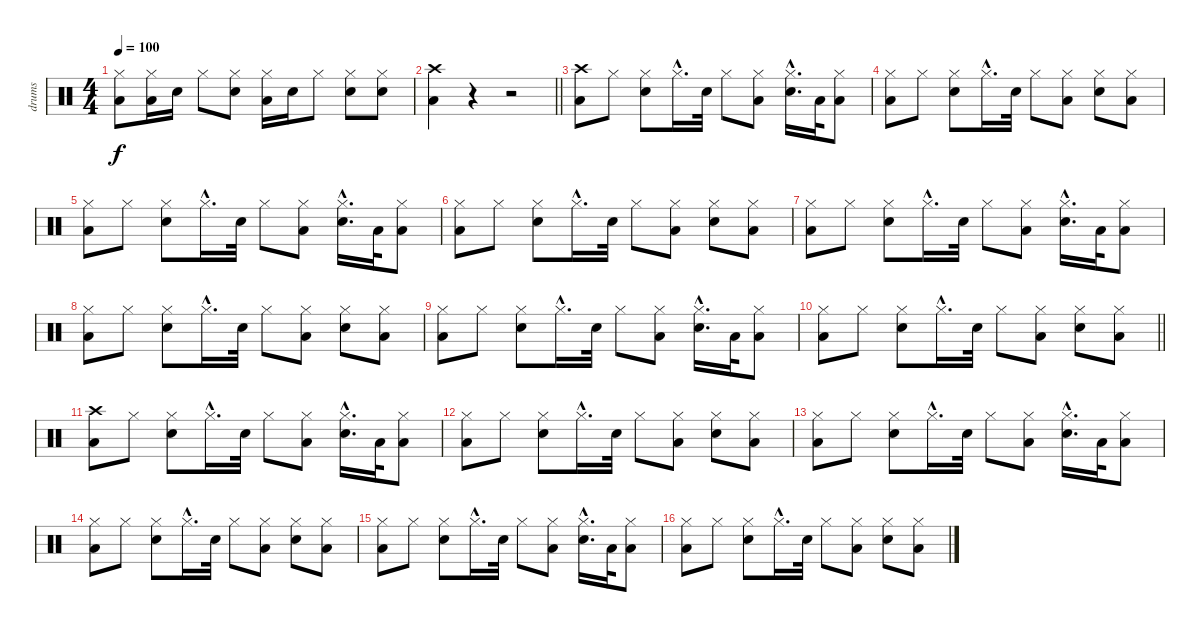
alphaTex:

\track ("drums" "drums") {instrument percussion}
\staff {score}
\articulation defaults
\ts (4 4)
\tempo 100
\clef neutral
\ks c
("Hi-Hat (closed)" "Low Floor Tom (hit)").8{dy f} ("Hi-Hat (closed)" "Low Floor Tom (hit)").16 "Electric Snare (hit)".16 "Hi-Hat (closed)".8 ("Hi-Hat (closed)" "Electric Snare (hit)").8 ("Hi-Hat (closed)" "Low Floor Tom (hit)").16 "Electric Snare (hit)".16 "Hi-Hat (closed)".8 ("Hi-Hat (closed)" "Electric Snare (hit)").8 ("Hi-Hat (closed)" "Electric Snare (hit)").8 |
\barLineRight lightlight
("Crash high (hit)" "Low Floor Tom (hit)").4 r.4 r.2 |
("Crash high (hit)" "Low Floor Tom (hit)").8 "Hi-Hat (closed)".8 ("Hi-Hat (closed)" "Electric Snare (hit)").8 "Hi-Hat (closed)"{hac}.16{d} "Electric Snare (hit)".32 "Hi-Hat (closed)".8 ("Hi-Hat (closed)" "Low Floor Tom (hit)").8 ("Hi-Hat (closed)"{hac} "Electric Snare (hit)"{hac}).16{d} "Low Floor Tom (hit)".32 ("Hi-Hat (closed)" "Low Floor Tom (hit)").8 |
("Hi-Hat (closed)" "Low Floor Tom (hit)").8 "Hi-Hat (closed)".8 ("Hi-Hat (closed)" "Electric Snare (hit)").8 "Hi-Hat (closed)"{hac}.16{d} "Electric Snare (hit)".32 "Hi-Hat (closed)".8 ("Hi-Hat (closed)" "Low Floor Tom (hit)").8 ("Hi-Hat (closed)" "Electric Snare (hit)").8 ("Hi-Hat (closed)" "Low Floor Tom (hit)").8 |
("Hi-Hat (closed)" "Low Floor Tom (hit)").8 "Hi-Hat (closed)".8 ("Hi-Hat (closed)" "Electric Snare (hit)").8 "Hi-Hat (closed)"{hac}.16{d} "Electric Snare (hit)".32 "Hi-Hat (closed)".8 ("Hi-Hat (closed)" "Low Floor Tom (hit)").8 ("Hi-Hat (closed)"{hac} "Electric Snare (hit)"{hac}).16{d} "Low Floor Tom (hit)".32 ("Hi-Hat (closed)" "Low Floor Tom (hit)").8 |
("Hi-Hat (closed)" "Low Floor Tom (hit)").8 "Hi-Hat (closed)".8 ("Hi-Hat (closed)" "Electric Snare (hit)").8 "Hi-Hat (closed)"{hac}.16{d} "Electric Snare (hit)".32 "Hi-Hat (closed)".8 ("Hi-Hat (closed)" "Low Floor Tom (hit)").8 ("Hi-Hat (closed)" "Electric Snare (hit)").8 ("Hi-Hat (closed)" "Low Floor Tom (hit)").8 |
("Hi-Hat (closed)" "Low Floor Tom (hit)").8 "Hi-Hat (closed)".8 ("Hi-Hat (closed)" "Electric Snare (hit)").8 "Hi-Hat (closed)"{hac}.16{d} "Electric Snare (hit)".32 "Hi-Hat (closed)".8 ("Hi-Hat (closed)" "Low Floor Tom (hit)").8 ("Hi-Hat (closed)"{hac} "Electric Snare (hit)"{hac}).16{d} "Low Floor Tom (hit)".32 ("Hi-Hat (closed)" "Low Floor Tom (hit)").8 |
("Hi-Hat (closed)" "Low Floor Tom (hit)").8 "Hi-Hat (closed)".8 ("Hi-Hat (closed)" "Electric Snare (hit)").8 "Hi-Hat (closed)"{hac}.16{d} "Electric Snare (hit)".32 "Hi-Hat (closed)".8 ("Hi-Hat (closed)" "Low Floor Tom (hit)").8 ("Hi-Hat (closed)" "Electric Snare (hit)").8 ("Hi-Hat (closed)" "Low Floor Tom (hit)").8 |
("Hi-Hat (closed)" "Low Floor Tom (hit)").8 "Hi-Hat (closed)".8 ("Hi-Hat (closed)" "Electric Snare (hit)").8 "Hi-Hat (closed)"{hac}.16{d} "Electric Snare (hit)".32 "Hi-Hat (closed)".8 ("Hi-Hat (closed)" "Low Floor Tom (hit)").8 ("Hi-Hat (closed)"{hac} "Electric Snare (hit)"{hac}).16{d} "Low Floor Tom (hit)".32 ("Hi-Hat (closed)" "Low Floor Tom (hit)").8 |
\barLineRight lightlight
("Hi-Hat (closed)" "Low Floor Tom (hit)").8 "Hi-Hat (closed)".8 ("Hi-Hat (closed)" "Electric Snare (hit)").8 "Hi-Hat (closed)"{hac}.16{d} "Electric Snare (hit)".32 "Hi-Hat (closed)".8 ("Hi-Hat (closed)" "Low Floor Tom (hit)").8 ("Hi-Hat (closed)" "Electric Snare (hit)").8 ("Hi-Hat (closed)" "Low Floor Tom (hit)").8 |
("Crash high (hit)" "Low Floor Tom (hit)").8 "Hi-Hat (closed)".8 ("Hi-Hat (closed)" "Electric Snare (hit)").8 "Hi-Hat (closed)"{hac}.16{d} "Electric Snare (hit)".32 "Hi-Hat (closed)".8 ("Hi-Hat (closed)" "Low Floor Tom (hit)").8 ("Hi-Hat (closed)"{hac} "Electric Snare (hit)"{hac}).16{d} "Low Floor Tom (hit)".32 ("Hi-Hat (closed)" "Low Floor Tom (hit)").8 |
("Hi-Hat (closed)" "Low Floor Tom (hit)").8 "Hi-Hat (closed)".8 ("Hi-Hat (closed)" "Electric Snare (hit)").8 "Hi-Hat (closed)"{hac}.16{d} "Electric Snare (hit)".32 "Hi-Hat (closed)".8 ("Hi-Hat (closed)" "Low Floor Tom (hit)").8 ("Hi-Hat (closed)" "Electric Snare (hit)").8 ("Hi-Hat (closed)" "Low Floor Tom (hit)").8 |
("Hi-Hat (closed)" "Low Floor Tom (hit)").8 "Hi-Hat (closed)".8 ("Hi-Hat (closed)" "Electric Snare (hit)").8 "Hi-Hat (closed)"{hac}.16{d} "Electric Snare (hit)".32 "Hi-Hat (closed)".8 ("Hi-Hat (closed)" "Low Floor Tom (hit)").8 ("Hi-Hat (closed)"{hac} "Electric Snare (hit)"{hac}).16{d} "Low Floor Tom (hit)".32 ("Hi-Hat (closed)" "Low Floor Tom (hit)").8 |
("Hi-Hat (closed)" "Low Floor Tom (hit)").8 "Hi-Hat (closed)".8 ("Hi-Hat (closed)" "Electric Snare (hit)").8 "Hi-Hat (closed)"{hac}.16{d} "Electric Snare (hit)".32 "Hi-Hat (closed)".8 ("Hi-Hat (closed)" "Low Floor Tom (hit)").8 ("Hi-Hat (closed)" "Electric Snare (hit)").8 ("Hi-Hat (closed)" "Low Floor Tom (hit)").8 |
("Hi-Hat (closed)" "Low Floor Tom (hit)").8 "Hi-Hat (closed)".8 ("Hi-Hat (closed)" "Electric Snare (hit)").8 "Hi-Hat (closed)"{hac}.16{d} "Electric Snare (hit)".32 "Hi-Hat (closed)".8 ("Hi-Hat (closed)" "Low Floor Tom (hit)").8 ("Hi-Hat (closed)"{hac} "Electric Snare (hit)"{hac}).16{d} "Low Floor Tom (hit)".32 ("Hi-Hat (closed)" "Low Floor Tom (hit)").8 |
("Hi-Hat (closed)" "Low Floor Tom (hit)").8 "Hi-Hat (closed)".8 ("Hi-Hat (closed)" "Electric Snare (hit)").8 "Hi-Hat (closed)"{hac}.16{d} "Electric Snare (hit)".32 "Hi-Hat (closed)".8 ("Hi-Hat (closed)" "Low Floor Tom (hit)").8 ("Hi-Hat (closed)" "Electric Snare (hit)").8 ("Hi-Hat (closed)" "Low Floor Tom (hit)").8
